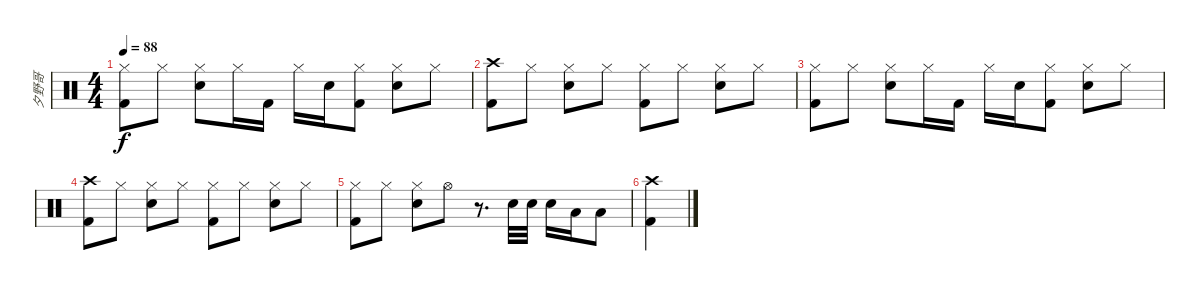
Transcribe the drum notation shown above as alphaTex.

\track ("夕野哥" "夕野哥") {instrument percussion}
\staff {score}
\articulation defaults
\ts (4 4)
\tempo 88
\clef neutral
\ks c
("Hi-Hat (closed)" "Kick (hit) 2").8{dy f} "Hi-Hat (closed)".8 ("Hi-Hat (closed)" "Electric Snare (hit)").8 "Hi-Hat (closed)".16 "Kick (hit) 2".16 "Hi-Hat (closed)".16 "Electric Snare (hit)".16 ("Hi-Hat (closed)" "Kick (hit) 2").8 ("Hi-Hat (closed)" "Electric Snare (hit)").8 "Hi-Hat (closed)".8 |
("Crash high (hit)" "Kick (hit) 2").8 "Hi-Hat (closed)".8 ("Hi-Hat (closed)" "Electric Snare (hit)").8 "Hi-Hat (closed)".8 ("Hi-Hat (closed)" "Kick (hit) 2").8 "Hi-Hat (closed)".8 ("Hi-Hat (closed)" "Electric Snare (hit)").8 "Hi-Hat (closed)".8 |
("Hi-Hat (closed)" "Kick (hit) 2").8 "Hi-Hat (closed)".8 ("Hi-Hat (closed)" "Electric Snare (hit)").8 "Hi-Hat (closed)".16 "Kick (hit) 2".16 "Hi-Hat (closed)".16 "Electric Snare (hit)".16 ("Hi-Hat (closed)" "Kick (hit) 2").8 ("Hi-Hat (closed)" "Electric Snare (hit)").8 "Hi-Hat (closed)".8 |
("Crash high (hit)" "Kick (hit) 2").8 "Hi-Hat (closed)".8 ("Hi-Hat (closed)" "Electric Snare (hit)").8 "Hi-Hat (closed)".8 ("Hi-Hat (closed)" "Kick (hit) 2").8 "Hi-Hat (closed)".8 ("Hi-Hat (closed)" "Electric Snare (hit)").8 "Hi-Hat (closed)".8 |
("Hi-Hat (closed)" "Kick (hit) 2").8 "Hi-Hat (closed)".8 ("Hi-Hat (closed)" "Electric Snare (hit)").8 "Hi-Hat (open)".8 r.8{d} "Electric Snare (hit)".32 "Electric Snare (hit)".32 "Electric Snare (hit)".16 "Low Floor Tom (hit)".16 "Low Tom (hit)".8 |
("Crash high (hit)" "Kick (hit) 2").4
